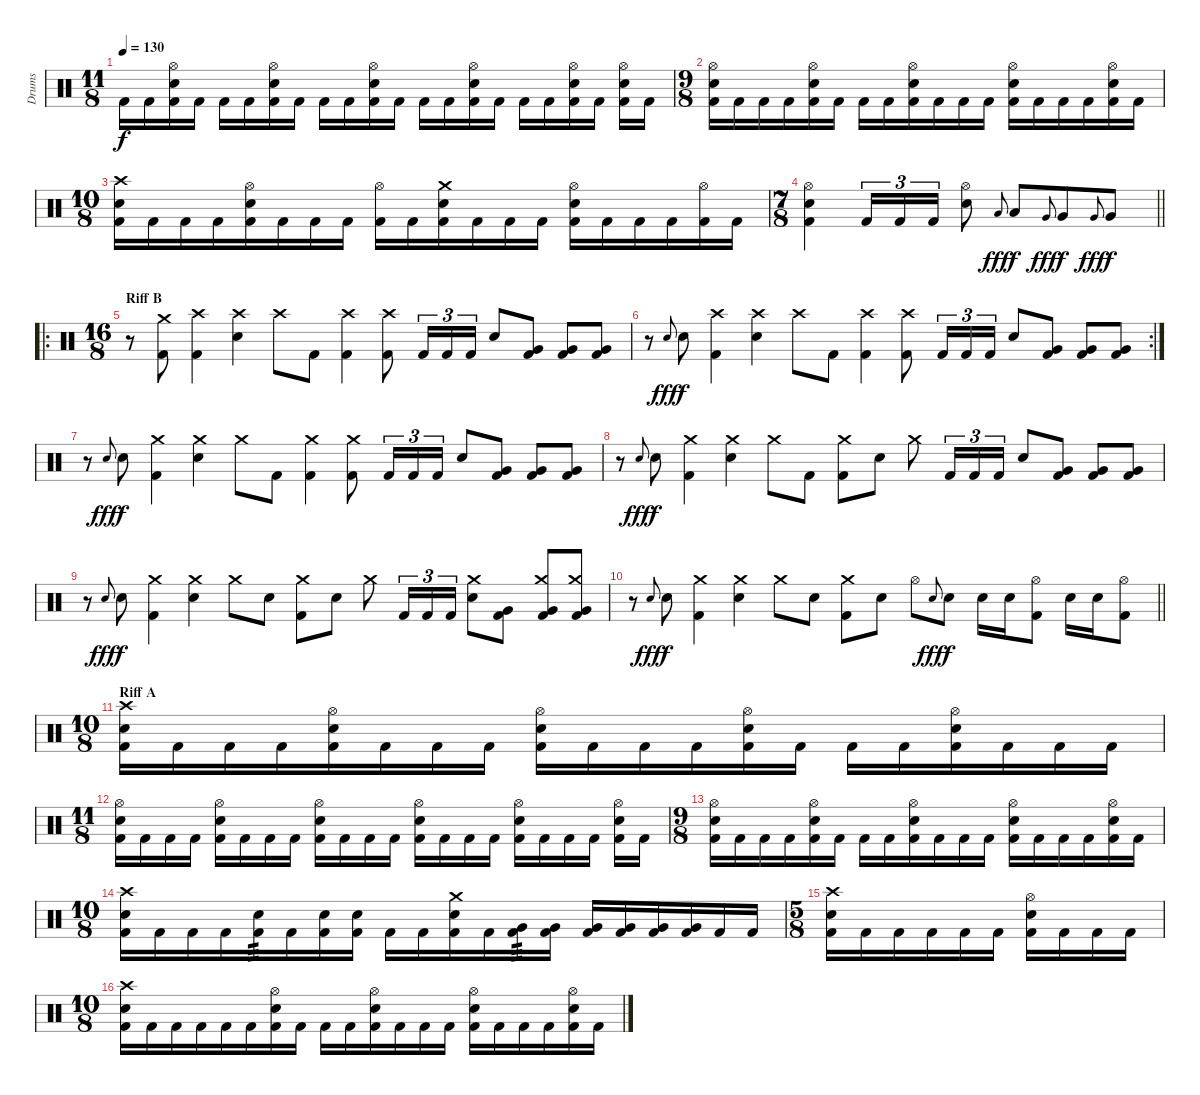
\track ("Drums" "Drums") {instrument percussion}
\staff {score}
\articulation defaults
\ts (11 8)
\tempo 130
\clef neutral
\ks c "Kick (hit) 2".16{dy f} "Kick (hit) 2".16
("Kick (hit) 2" "Snare (hit) 2" "Hi-Hat (open)").16 "Kick (hit) 2".16 "Kick (hit) 2".16 "Kick (hit) 2".16 ("Kick (hit) 2" "Snare (hit) 2" "Hi-Hat (open)").16 "Kick (hit) 2".16 "Kick (hit) 2".16 "Kick (hit) 2".16 ("Kick (hit) 2" "Snare (hit) 2" "Hi-Hat (open)").16 "Kick (hit) 2".16 "Kick (hit) 2".16 "Kick (hit) 2".16 ("Kick (hit) 2" "Snare (hit) 2" "Hi-Hat (open)").16 "Kick (hit) 2".16 "Kick (hit) 2".16 "Kick (hit) 2".16 ("Kick (hit) 2" "Snare (hit) 2" "Hi-Hat (open)").16 "Kick (hit) 2".16 ("Snare (hit) 2" "Kick (hit) 2" "Hi-Hat (open)").16 "Kick (hit) 2".16 |
\ts (9 8)
("Hi-Hat (open)" "Kick (hit) 2" "Snare (hit) 2").16 "Kick (hit) 2".16 "Kick (hit) 2".16 "Kick (hit) 2".16 ("Hi-Hat (open)" "Kick (hit) 2" "Snare (hit) 2").16 "Kick (hit) 2".16 "Kick (hit) 2".16 "Kick (hit) 2".16 ("Hi-Hat (open)" "Kick (hit) 2" "Snare (hit) 2").16 "Kick (hit) 2".16 "Kick (hit) 2".16 "Kick (hit) 2".16 ("Hi-Hat (open)" "Kick (hit) 2" "Snare (hit) 2").16 "Kick (hit) 2".16 "Kick (hit) 2".16 "Kick (hit) 2".16 ("Hi-Hat (open)" "Kick (hit) 2" "Snare (hit) 2").16 "Kick (hit) 2".16 |
\ts (10 8)
("Crash high (hit)" "Kick (hit) 2" "Snare (hit) 2").16 "Kick (hit) 2".16 "Kick (hit) 2".16 "Kick (hit) 2".16 ("Kick (hit) 2" "Hi-Hat (open)" "Snare (hit) 2").16 "Kick (hit) 2".16 "Kick (hit) 2".16 "Kick (hit) 2".16 ("Kick (hit) 2" "Hi-Hat (open)").16 "Kick (hit) 2".16 ("Kick (hit) 2" "Crash medium (hit)" "Snare (hit) 2").16 "Kick (hit) 2".16 "Kick (hit) 2".16 "Kick (hit) 2".16 ("Kick (hit) 2" "Hi-Hat (open)" "Snare (hit) 2").16 "Kick (hit) 2".16 "Kick (hit) 2".16 "Kick (hit) 2".16 ("Kick (hit) 2" "Hi-Hat (open)").16 "Kick (hit) 2".16 |
\ts (7 8)
\barLineRight lightlight
("Kick (hit) 2" "Hi-Hat (open)" "Snare (hit) 2").4 "Kick (hit) 2".16{tu (3 2)} "Kick (hit) 2".16{tu (3 2)} "Kick (hit) 2".16{tu (3 2)} ("Snare (hit) 2" "Hi-Hat (open)").8 "Low Tom (hit)".8{gr onbeat dy fff} "Low Tom (hit)".8{dy f} "Very Low Tom (hit)".8{gr onbeat dy fff} "Very Low Tom (hit)".8{dy f} "Very Low Tom (hit)".8{gr onbeat dy fff} "Very Low Tom (hit)".8{dy f} |
\ro
\ts (16 8)
\section ("" "Riff B")
r.8 ("Crash medium (hit)" "Kick (hit) 2").8 ("Kick (hit) 2" "Crash high (hit)").4 ("Snare (hit) 2" "Crash high (hit)").4 "Crash high (hit)".8 "Kick (hit) 2".8 ("Kick (hit) 2" "Crash high (hit)").4 ("Crash high (hit)" "Kick (hit) 2").8 "Kick (hit) 2".16{tu (3 2)} "Kick (hit) 2".16{tu (3 2)} "Kick (hit) 2".16{tu (3 2)} "Snare (hit) 2".8 ("Kick (hit) 2" "Very Low Tom (hit)").8 ("Kick (hit) 2" "Very Low Tom (hit)").8 ("Kick (hit) 2" "Very Low Tom (hit)").8 |
\rc 2
r.8 "Snare (hit) 2".8{gr onbeat dy fff} "Snare (hit) 2".8{dy f} ("Kick (hit) 2" "Crash high (hit)").4 ("Snare (hit) 2" "Crash high (hit)").4 "Crash high (hit)".8 "Kick (hit) 2".8 ("Kick (hit) 2" "Crash high (hit)").4 ("Crash high (hit)" "Kick (hit) 2").8 "Kick (hit) 2".16{tu (3 2)} "Kick (hit) 2".16{tu (3 2)} "Kick (hit) 2".16{tu (3 2)} "Snare (hit) 2".8 ("Kick (hit) 2" "Very Low Tom (hit)").8 ("Kick (hit) 2" "Very Low Tom (hit)").8 ("Kick (hit) 2" "Very Low Tom (hit)").8 |
r.8 "Snare (hit) 2".8{gr onbeat dy fff} "Snare (hit) 2".8{dy f} ("Kick (hit) 2" "Crash medium (hit)").4 ("Snare (hit) 2" "Crash medium (hit)").4 "Crash medium (hit)".8 "Kick (hit) 2".8 ("Kick (hit) 2" "Crash medium (hit)").4 ("Crash medium (hit)" "Kick (hit) 2").8 "Kick (hit) 2".16{tu (3 2)} "Kick (hit) 2".16{tu (3 2)} "Kick (hit) 2".16{tu (3 2)} "Snare (hit) 2".8 ("Kick (hit) 2" "Very Low Tom (hit)").8 ("Kick (hit) 2" "Very Low Tom (hit)").8 ("Kick (hit) 2" "Very Low Tom (hit)").8 |
r.8 "Snare (hit) 2".8{gr onbeat dy fff} "Snare (hit) 2".8{dy f} ("Kick (hit) 2" "Crash medium (hit)").4 ("Snare (hit) 2" "Crash medium (hit)").4 "Crash medium (hit)".8 "Kick (hit) 2".8 ("Kick (hit) 2" "Crash medium (hit)").8 "Snare (hit) 2".8 "Crash medium (hit)".8 "Kick (hit) 2".16{tu (3 2)} "Kick (hit) 2".16{tu (3 2)} "Kick (hit) 2".16{tu (3 2)} "Snare (hit) 2".8 ("Kick (hit) 2" "Very Low Tom (hit)").8 ("Kick (hit) 2" "Very Low Tom (hit)").8 ("Kick (hit) 2" "Very Low Tom (hit)").8 |
r.8 "Snare (hit) 2".8{gr onbeat dy fff} "Snare (hit) 2".8{dy f} ("Kick (hit) 2" "Crash medium (hit)").4 ("Snare (hit) 2" "Crash medium (hit)").4 "Crash medium (hit)".8 "Snare (hit) 2".8 ("Kick (hit) 2" "Crash medium (hit)").8 "Snare (hit) 2".8 "Crash medium (hit)".8 "Kick (hit) 2".16{tu (3 2)} "Kick (hit) 2".16{tu (3 2)} "Kick (hit) 2".16{tu (3 2)} ("Snare (hit) 2" "Crash medium (hit)").8 ("Kick (hit) 2" "Very Low Tom (hit)").8 ("Kick (hit) 2" "Very Low Tom (hit)" "Crash medium (hit)").8 ("Kick (hit) 2" "Very Low Tom (hit)" "Crash medium (hit)").8 |
\barLineRight lightlight
r.8 "Snare (hit) 2".8{gr onbeat dy fff} "Snare (hit) 2".8{dy f} ("Kick (hit) 2" "Crash medium (hit)").4 ("Snare (hit) 2" "Crash medium (hit)").4 "Crash medium (hit)".8 "Snare (hit) 2".8 ("Kick (hit) 2" "Crash medium (hit)").8 "Snare (hit) 2".8 "Hi-Hat (open)".8 "Snare (hit) 2".8{gr onbeat dy fff} "Snare (hit) 2".8{dy f} "Snare (hit) 2".16 "Snare (hit) 2".16 ("Hi-Hat (open)" "Kick (hit) 2").8 "Snare (hit) 2".16 "Snare (hit) 2".16 ("Kick (hit) 2" "Hi-Hat (open)").8 |
\ts (10 8)
\section ("" "Riff A")
("Crash high (hit)" "Kick (hit) 2" "Snare (hit) 2").16 "Kick (hit) 2".16 "Kick (hit) 2".16 "Kick (hit) 2".16 ("Hi-Hat (open)" "Kick (hit) 2" "Snare (hit) 2").16 "Kick (hit) 2".16 "Kick (hit) 2".16 "Kick (hit) 2".16 ("Hi-Hat (open)" "Kick (hit) 2" "Snare (hit) 2").16 "Kick (hit) 2".16 "Kick (hit) 2".16 "Kick (hit) 2".16 ("Hi-Hat (open)" "Kick (hit) 2" "Snare (hit) 2").16 "Kick (hit) 2".16 "Kick (hit) 2".16 "Kick (hit) 2".16 ("Hi-Hat (open)" "Kick (hit) 2" "Snare (hit) 2").16 "Kick (hit) 2".16 "Kick (hit) 2".16 "Kick (hit) 2".16 |
\ts (11 8)
("Hi-Hat (open)" "Kick (hit) 2" "Snare (hit) 2").16 "Kick (hit) 2".16 "Kick (hit) 2".16 "Kick (hit) 2".16 ("Hi-Hat (open)" "Kick (hit) 2" "Snare (hit) 2").16 "Kick (hit) 2".16 "Kick (hit) 2".16 "Kick (hit) 2".16 ("Hi-Hat (open)" "Kick (hit) 2" "Snare (hit) 2").16 "Kick (hit) 2".16 "Kick (hit) 2".16 "Kick (hit) 2".16 ("Hi-Hat (open)" "Kick (hit) 2" "Snare (hit) 2").16 "Kick (hit) 2".16 "Kick (hit) 2".16 "Kick (hit) 2".16 ("Hi-Hat (open)" "Kick (hit) 2" "Snare (hit) 2").16 "Kick (hit) 2".16 "Kick (hit) 2".16 "Kick (hit) 2".16 ("Hi-Hat (open)" "Kick (hit) 2" "Snare (hit) 2").16 "Kick (hit) 2".16 |
\ts (9 8)
("Hi-Hat (open)" "Kick (hit) 2" "Snare (hit) 2").16 "Kick (hit) 2".16 "Kick (hit) 2".16 "Kick (hit) 2".16 ("Hi-Hat (open)" "Kick (hit) 2" "Snare (hit) 2").16 "Kick (hit) 2".16 "Kick (hit) 2".16 "Kick (hit) 2".16 ("Hi-Hat (open)" "Kick (hit) 2" "Snare (hit) 2").16 "Kick (hit) 2".16 "Kick (hit) 2".16 "Kick (hit) 2".16 ("Hi-Hat (open)" "Kick (hit) 2" "Snare (hit) 2").16 "Kick (hit) 2".16 "Kick (hit) 2".16 "Kick (hit) 2".16 ("Hi-Hat (open)" "Kick (hit) 2" "Snare (hit) 2").16 "Kick (hit) 2".16 |
\ts (10 8)
("Crash high (hit)" "Kick (hit) 2" "Snare (hit) 2").16 "Kick (hit) 2".16 "Kick (hit) 2".16 "Kick (hit) 2".16 ("Kick (hit) 2" "Snare (hit) 2").16{tp 3} "Kick (hit) 2".16 ("Kick (hit) 2" "Snare (hit) 2").16 ("Kick (hit) 2" "Snare (hit) 2").16 "Kick (hit) 2".16 "Kick (hit) 2".16 ("Kick (hit) 2" "Crash medium (hit)" "Snare (hit) 2").16 "Kick (hit) 2".16 ("Kick (hit) 2" "Very Low Tom (hit)").16{tp 3} ("Kick (hit) 2" "Very Low Tom (hit)").16 ("Kick (hit) 2" "Very Low Tom (hit)").16 ("Kick (hit) 2" "Very Low Tom (hit)").16 ("Kick (hit) 2" "Very Low Tom (hit)").16 ("Kick (hit) 2" "Very Low Tom (hit)").16 "Kick (hit) 2".16 "Kick (hit) 2".16 |
\ts (5 8)
("Kick (hit) 2" "Snare (hit) 2" "Crash high (hit)").16 "Kick (hit) 2".16 "Kick (hit) 2".16 "Kick (hit) 2".16 "Kick (hit) 2".16 "Kick (hit) 2".16 ("Kick (hit) 2" "Hi-Hat (open)" "Snare (hit) 2").16 "Kick (hit) 2".16 "Kick (hit) 2".16 "Kick (hit) 2".16 |
\ts (10 8)
("Crash high (hit)" "Kick (hit) 2" "Snare (hit) 2").16 "Kick (hit) 2".16 "Kick (hit) 2".16 "Kick (hit) 2".16 "Kick (hit) 2".16 "Kick (hit) 2".16 ("Kick (hit) 2" "Snare (hit) 2" "Hi-Hat (open)").16 "Kick (hit) 2".16 "Kick (hit) 2".16 "Kick (hit) 2".16 ("Kick (hit) 2" "Snare (hit) 2" "Hi-Hat (open)").16 "Kick (hit) 2".16 "Kick (hit) 2".16 "Kick (hit) 2".16 ("Kick (hit) 2" "Snare (hit) 2" "Hi-Hat (open)").16 "Kick (hit) 2".16 "Kick (hit) 2".16 "Kick (hit) 2".16 ("Kick (hit) 2" "Snare (hit) 2" "Hi-Hat (open)").16 "Kick (hit) 2".16
